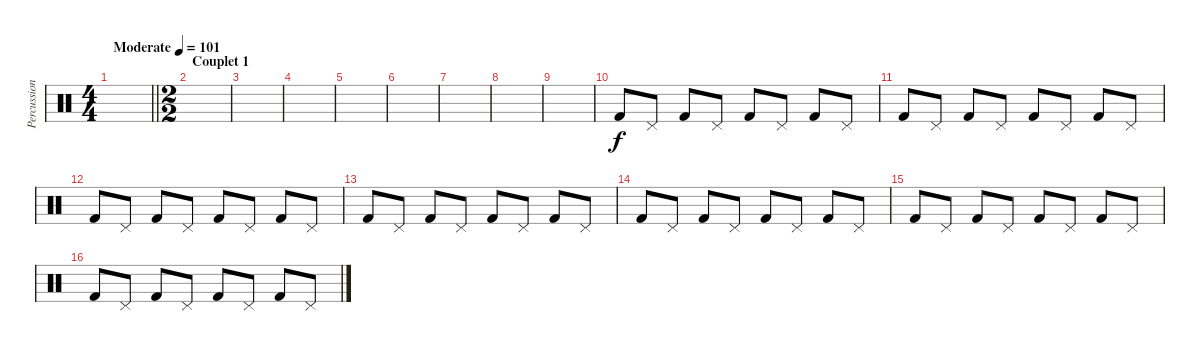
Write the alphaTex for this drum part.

\track ("Percussions" "Percussion") {instrument percussion}
\staff {score}
\articulation defaults
\ts (4 4)
\tempo (101 "Moderate")
\clef neutral
\barLineRight lightlight
\ks c
|
\ts (2 2)
\section ("" "Couplet 1")
|
|
|
|
|
|
|
|
"Kick (hit) 2".8 "Pedal Hi-Hat (hit)".8 "Kick (hit) 2".8 "Pedal Hi-Hat (hit)".8 "Kick (hit) 2".8 "Pedal Hi-Hat (hit)".8 "Kick (hit) 2".8 "Pedal Hi-Hat (hit)".8 |
"Kick (hit) 2".8 "Pedal Hi-Hat (hit)".8 "Kick (hit) 2".8 "Pedal Hi-Hat (hit)".8 "Kick (hit) 2".8 "Pedal Hi-Hat (hit)".8 "Kick (hit) 2".8 "Pedal Hi-Hat (hit)".8 |
"Kick (hit) 2".8 "Pedal Hi-Hat (hit)".8 "Kick (hit) 2".8 "Pedal Hi-Hat (hit)".8 "Kick (hit) 2".8 "Pedal Hi-Hat (hit)".8 "Kick (hit) 2".8 "Pedal Hi-Hat (hit)".8 |
"Kick (hit) 2".8 "Pedal Hi-Hat (hit)".8 "Kick (hit) 2".8 "Pedal Hi-Hat (hit)".8 "Kick (hit) 2".8 "Pedal Hi-Hat (hit)".8 "Kick (hit) 2".8 "Pedal Hi-Hat (hit)".8 |
"Kick (hit) 2".8 "Pedal Hi-Hat (hit)".8 "Kick (hit) 2".8 "Pedal Hi-Hat (hit)".8 "Kick (hit) 2".8 "Pedal Hi-Hat (hit)".8 "Kick (hit) 2".8 "Pedal Hi-Hat (hit)".8 |
"Kick (hit) 2".8 "Pedal Hi-Hat (hit)".8 "Kick (hit) 2".8 "Pedal Hi-Hat (hit)".8 "Kick (hit) 2".8 "Pedal Hi-Hat (hit)".8 "Kick (hit) 2".8 "Pedal Hi-Hat (hit)".8 |
"Kick (hit) 2".8 "Pedal Hi-Hat (hit)".8 "Kick (hit) 2".8 "Pedal Hi-Hat (hit)".8 "Kick (hit) 2".8 "Pedal Hi-Hat (hit)".8 "Kick (hit) 2".8 "Pedal Hi-Hat (hit)".8
